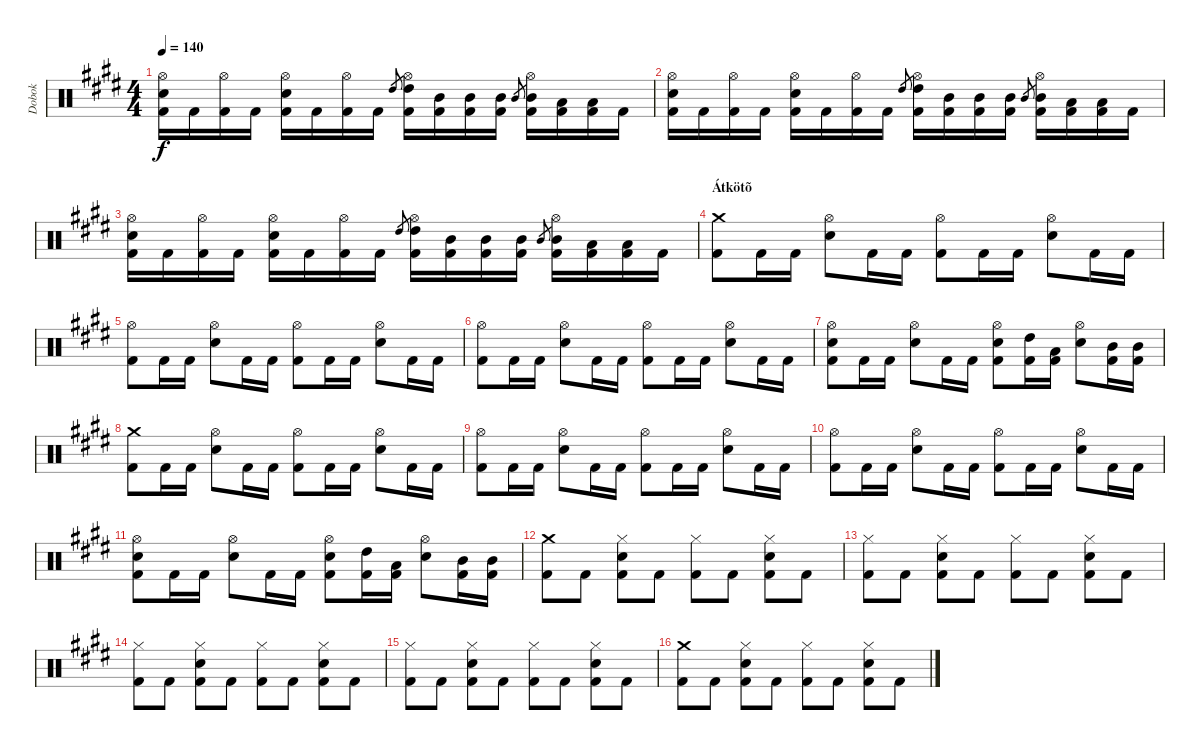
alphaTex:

\track ("Dobok" "Dobok") {instrument percussion}
\staff {score}
\articulation defaults
\ts (4 4)
\tempo 140
\clef neutral
\ks c#minor
("Hi-Hat (open)" "Snare (hit) 2" "Kick (hit) 2").16{dy f} "Kick (hit) 2".16 ("Hi-Hat (open)" "Kick (hit) 2").16 "Kick (hit) 2".16 ("Hi-Hat (open)" "Snare (hit) 2" "Kick (hit) 2").16 "Kick (hit) 2".16 ("Hi-Hat (open)" "Kick (hit) 2").16 "Kick (hit) 2".16 "High Tom (hit)".8{gr} ("Hi-Hat (open)" "High Tom (hit)" "Kick (hit) 2").16 ("Mid Tom (hit)" "Kick (hit) 2").16 ("Mid Tom (hit)" "Kick (hit) 2").16 ("Mid Tom (hit)" "Kick (hit) 2").16 "Mid Tom (hit)".8{gr} ("Hi-Hat (open)" "Mid Tom (hit)" "Kick (hit) 2").16 ("Low Tom (hit)" "Kick (hit) 2").16 ("Low Tom (hit)" "Kick (hit) 2").16 "Kick (hit) 2".16 |
("Hi-Hat (open)" "Snare (hit) 2" "Kick (hit) 2").16 "Kick (hit) 2".16 ("Hi-Hat (open)" "Kick (hit) 2").16 "Kick (hit) 2".16 ("Hi-Hat (open)" "Snare (hit) 2" "Kick (hit) 2").16 "Kick (hit) 2".16 ("Hi-Hat (open)" "Kick (hit) 2").16 "Kick (hit) 2".16 "High Tom (hit)".8{gr} ("Hi-Hat (open)" "High Tom (hit)" "Kick (hit) 2").16 ("Mid Tom (hit)" "Kick (hit) 2").16 ("Mid Tom (hit)" "Kick (hit) 2").16 ("Mid Tom (hit)" "Kick (hit) 2").16 "Mid Tom (hit)".8{gr} ("Hi-Hat (open)" "Mid Tom (hit)" "Kick (hit) 2").16 ("Low Tom (hit)" "Kick (hit) 2").16 ("Low Tom (hit)" "Kick (hit) 2").16 "Kick (hit) 2".16 |
("Hi-Hat (open)" "Snare (hit) 2" "Kick (hit) 2").16 "Kick (hit) 2".16 ("Hi-Hat (open)" "Kick (hit) 2").16 "Kick (hit) 2".16 ("Hi-Hat (open)" "Snare (hit) 2" "Kick (hit) 2").16 "Kick (hit) 2".16 ("Hi-Hat (open)" "Kick (hit) 2").16 "Kick (hit) 2".16 "High Tom (hit)".8{gr} ("Hi-Hat (open)" "High Tom (hit)" "Kick (hit) 2").16 ("Mid Tom (hit)" "Kick (hit) 2").16 ("Mid Tom (hit)" "Kick (hit) 2").16 ("Mid Tom (hit)" "Kick (hit) 2").16 "Mid Tom (hit)".8{gr} ("Hi-Hat (open)" "Mid Tom (hit)" "Kick (hit) 2").16 ("Low Tom (hit)" "Kick (hit) 2").16 ("Low Tom (hit)" "Kick (hit) 2").16 "Kick (hit) 2".16 |
\section ("" "Átkötõ")
("Crash medium (hit)" "Kick (hit) 2").8 "Kick (hit) 2".16 "Kick (hit) 2".16 ("Hi-Hat (open)" "Snare (hit) 2").8 "Kick (hit) 2".16 "Kick (hit) 2".16 ("Hi-Hat (open)" "Kick (hit) 2").8 "Kick (hit) 2".16 "Kick (hit) 2".16 ("Hi-Hat (open)" "Snare (hit) 2").8 "Kick (hit) 2".16 "Kick (hit) 2".16 |
("Hi-Hat (open)" "Kick (hit) 2").8 "Kick (hit) 2".16 "Kick (hit) 2".16 ("Hi-Hat (open)" "Snare (hit) 2").8 "Kick (hit) 2".16 "Kick (hit) 2".16 ("Hi-Hat (open)" "Kick (hit) 2").8 "Kick (hit) 2".16 "Kick (hit) 2".16 ("Hi-Hat (open)" "Snare (hit) 2").8 "Kick (hit) 2".16 "Kick (hit) 2".16 |
("Hi-Hat (open)" "Kick (hit) 2").8 "Kick (hit) 2".16 "Kick (hit) 2".16 ("Hi-Hat (open)" "Snare (hit) 2").8 "Kick (hit) 2".16 "Kick (hit) 2".16 ("Hi-Hat (open)" "Kick (hit) 2").8 "Kick (hit) 2".16 "Kick (hit) 2".16 ("Hi-Hat (open)" "Snare (hit) 2").8 "Kick (hit) 2".16 "Kick (hit) 2".16 |
("Hi-Hat (open)" "Snare (hit) 2" "Kick (hit) 2").8 "Kick (hit) 2".16 "Kick (hit) 2".16 ("Hi-Hat (open)" "Snare (hit) 2").8 "Kick (hit) 2".16 "Kick (hit) 2".16 ("Hi-Hat (open)" "Snare (hit) 2" "Kick (hit) 2").8 ("High Tom (hit)" "Kick (hit) 2").16 ("Low Tom (hit)" "Kick (hit) 2").16 ("Hi-Hat (open)" "Snare (hit) 2").8 ("Mid Tom (hit)" "Kick (hit) 2").16 ("Mid Tom (hit)" "Kick (hit) 2").16 |
("Crash medium (hit)" "Kick (hit) 2").8 "Kick (hit) 2".16 "Kick (hit) 2".16 ("Hi-Hat (open)" "Snare (hit) 2").8 "Kick (hit) 2".16 "Kick (hit) 2".16 ("Hi-Hat (open)" "Kick (hit) 2").8 "Kick (hit) 2".16 "Kick (hit) 2".16 ("Hi-Hat (open)" "Snare (hit) 2").8 "Kick (hit) 2".16 "Kick (hit) 2".16 |
("Hi-Hat (open)" "Kick (hit) 2").8 "Kick (hit) 2".16 "Kick (hit) 2".16 ("Hi-Hat (open)" "Snare (hit) 2").8 "Kick (hit) 2".16 "Kick (hit) 2".16 ("Hi-Hat (open)" "Kick (hit) 2").8 "Kick (hit) 2".16 "Kick (hit) 2".16 ("Hi-Hat (open)" "Snare (hit) 2").8 "Kick (hit) 2".16 "Kick (hit) 2".16 |
("Hi-Hat (open)" "Kick (hit) 2").8 "Kick (hit) 2".16 "Kick (hit) 2".16 ("Hi-Hat (open)" "Snare (hit) 2").8 "Kick (hit) 2".16 "Kick (hit) 2".16 ("Hi-Hat (open)" "Kick (hit) 2").8 "Kick (hit) 2".16 "Kick (hit) 2".16 ("Hi-Hat (open)" "Snare (hit) 2").8 "Kick (hit) 2".16 "Kick (hit) 2".16 |
("Hi-Hat (open)" "Snare (hit) 2" "Kick (hit) 2").8 "Kick (hit) 2".16 "Kick (hit) 2".16 ("Hi-Hat (open)" "Snare (hit) 2").8 "Kick (hit) 2".16 "Kick (hit) 2".16 ("Hi-Hat (open)" "Snare (hit) 2" "Kick (hit) 2").8 ("High Tom (hit)" "Kick (hit) 2").16 ("Low Tom (hit)" "Kick (hit) 2").16 ("Hi-Hat (open)" "Snare (hit) 2").8 ("Mid Tom (hit)" "Kick (hit) 2").16 ("Mid Tom (hit)" "Kick (hit) 2").16 |
("Crash medium (hit)" "Kick (hit) 2").8 "Kick (hit) 2".8 ("Hi-Hat (closed)" "Snare (hit) 2" "Kick (hit) 2").8 "Kick (hit) 2".8 ("Hi-Hat (closed)" "Kick (hit) 2").8 "Kick (hit) 2".8 ("Hi-Hat (closed)" "Snare (hit) 2" "Kick (hit) 2").8 "Kick (hit) 2".8 |
("Hi-Hat (closed)" "Kick (hit) 2").8 "Kick (hit) 2".8 ("Hi-Hat (closed)" "Snare (hit) 2" "Kick (hit) 2").8 "Kick (hit) 2".8 ("Hi-Hat (closed)" "Kick (hit) 2").8 "Kick (hit) 2".8 ("Hi-Hat (closed)" "Snare (hit) 2" "Kick (hit) 2").8 "Kick (hit) 2".8 |
("Hi-Hat (closed)" "Kick (hit) 2").8 "Kick (hit) 2".8 ("Hi-Hat (closed)" "Snare (hit) 2" "Kick (hit) 2").8 "Kick (hit) 2".8 ("Hi-Hat (closed)" "Kick (hit) 2").8 "Kick (hit) 2".8 ("Hi-Hat (closed)" "Snare (hit) 2" "Kick (hit) 2").8 "Kick (hit) 2".8 |
("Hi-Hat (closed)" "Kick (hit) 2").8 "Kick (hit) 2".8 ("Hi-Hat (closed)" "Snare (hit) 2" "Kick (hit) 2").8 "Kick (hit) 2".8 ("Hi-Hat (closed)" "Kick (hit) 2").8 "Kick (hit) 2".8 ("Hi-Hat (closed)" "Snare (hit) 2" "Kick (hit) 2").8 "Kick (hit) 2".8 |
("Crash medium (hit)" "Kick (hit) 2").8 "Kick (hit) 2".8 ("Hi-Hat (closed)" "Snare (hit) 2" "Kick (hit) 2").8 "Kick (hit) 2".8 ("Hi-Hat (closed)" "Kick (hit) 2").8 "Kick (hit) 2".8 ("Hi-Hat (closed)" "Snare (hit) 2" "Kick (hit) 2").8 "Kick (hit) 2".8
